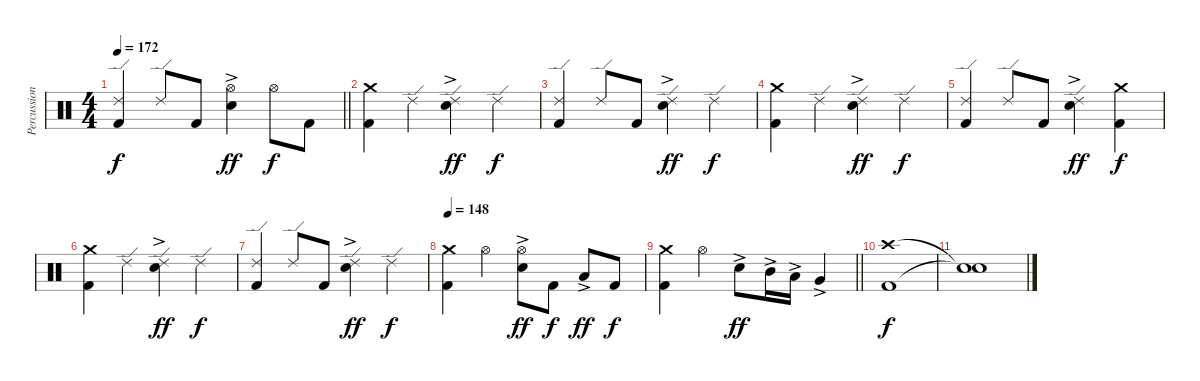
\track ("Percussion" "Percussion") {instrument percussion}
\staff {score}
\articulation defaults
\ts (4 4)
\tempo 172
\clef neutral
\barLineRight lightlight
\ks c
("Ride (edge) 2" "Kick (hit) 2").4{dy f} "Ride (edge) 2".8 "Kick (hit) 2".8 ("Hi-Hat (open)" "Electric Snare (hit)"{ac}).4{dy ff} "Hi-Hat (open)".8{dy f} "Kick (hit) 2".8 |
("Crash medium (hit)" "Kick (hit) 2").4 "Ride (edge) 2".4 ("Ride (edge) 2" "Electric Snare (hit)"{ac}).4{dy ff} "Ride (edge) 2".4{dy f} |
("Ride (edge) 2" "Kick (hit) 2").4 "Ride (edge) 2".8 "Kick (hit) 2".8 ("Ride (edge) 2" "Electric Snare (hit)"{ac}).4{dy ff} "Ride (edge) 2".4{dy f} |
("Crash medium (hit)" "Kick (hit) 2").4 "Ride (edge) 2".4 ("Ride (edge) 2" "Electric Snare (hit)"{ac}).4{dy ff} "Ride (edge) 2".4{dy f} |
("Ride (edge) 2" "Kick (hit) 2").4 "Ride (edge) 2".8 "Kick (hit) 2".8 ("Ride (edge) 2" "Electric Snare (hit)"{ac}).4{dy ff} ("Crash medium (hit)" "Kick (hit) 2").4{dy f} |
("Crash medium (hit)" "Kick (hit) 2").4 "Ride (edge) 2".4 ("Ride (edge) 2" "Electric Snare (hit)"{ac}).4{dy ff} "Ride (edge) 2".4{dy f} |
("Ride (edge) 2" "Kick (hit) 2").4 "Ride (edge) 2".8 "Kick (hit) 2".8 ("Ride (edge) 2" "Electric Snare (hit)"{ac}).4{dy ff} "Ride (edge) 2".4{dy f} |
\tempo 148
("Crash medium (hit)" "Kick (hit) 2").4 "Hi-Hat (open)".4 ("Hi-Hat (open)" "Electric Snare (hit)"{ac}).8{dy ff} "Kick (hit) 2".8{dy f} "Low Tom (hit)"{ac}.8{dy ff} "Kick (hit) 2".8{dy f} |
\barLineRight lightlight
("Crash medium (hit)" "Kick (hit) 2").4 "Hi-Hat (open)".4 "Electric Snare (hit)"{ac}.8{dy ff} "Mid Tom (hit)"{ac}.16 "Low Tom (hit)"{ac}.16 "Very Low Tom (hit)"{ac}.4 |
("Crash high (hit)" "Kick (hit) 2").1{dy f} |
("Snare (hit)"{t} "Snare (hit)"{t}).1
